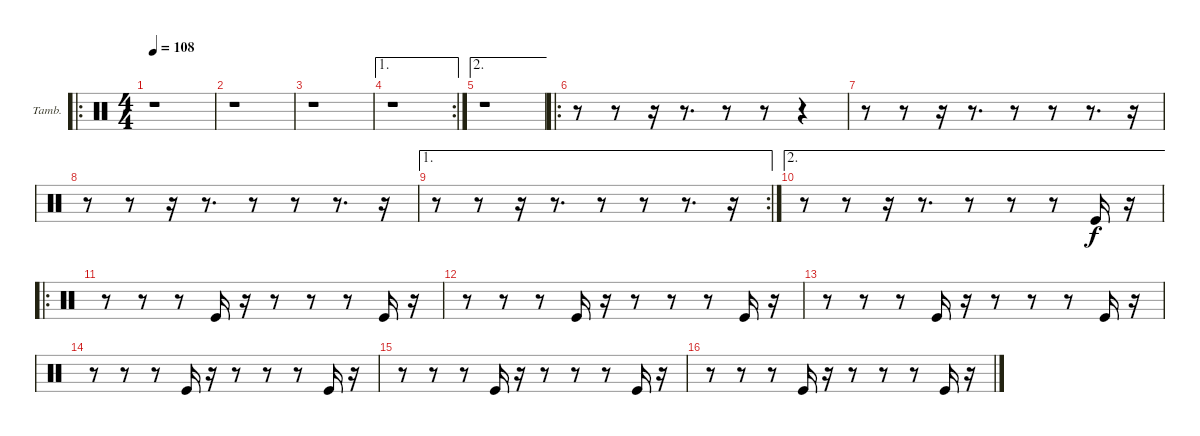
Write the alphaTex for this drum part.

\bracketExtendMode groupsimilarinstruments
\firstSystemTrackNameOrientation horizontal
\otherSystemsTrackNameOrientation horizontal
\track ("Tambourine" "Tamb.") {instrument percussion}
\staff {score}
\articulation defaults
\ro
\ts (4 4)
\tempo 108
\clef neutral
\ks c
r.1{dy f} |
r.1 |
r.1 |
\ae 1
\rc 2
r.1 |
\ae 2
r.1 |
\ro
r.8 r.8 r.16 r.8{d} r.8 r.8 r.4 |
r.8 r.8 r.16 r.8{d} r.8 r.8 r.8{d} r.16 |
r.8 r.8 r.16 r.8{d} r.8 r.8 r.8{d} r.16 |
\ae 1
\rc 2
r.8 r.8 r.16 r.8{d} r.8 r.8 r.8{d} r.16 |
\ae 2
r.8 r.8 r.16 r.8{d} r.8 r.8 r.8 "Kick (hit)".16 r.16 |
\ro
r.8 r.8 r.8 "Kick (hit)".16 r.16 r.8 r.8 r.8 "Kick (hit)".16 r.16 |
r.8 r.8 r.8 "Kick (hit)".16 r.16 r.8 r.8 r.8 "Kick (hit)".16 r.16 |
r.8 r.8 r.8 "Kick (hit)".16 r.16 r.8 r.8 r.8 "Kick (hit)".16 r.16 |
r.8 r.8 r.8 "Kick (hit)".16 r.16 r.8 r.8 r.8 "Kick (hit)".16 r.16 |
r.8 r.8 r.8 "Kick (hit)".16 r.16 r.8 r.8 r.8 "Kick (hit)".16 r.16 |
r.8 r.8 r.8 "Kick (hit)".16 r.16 r.8 r.8 r.8 "Kick (hit)".16 r.16
